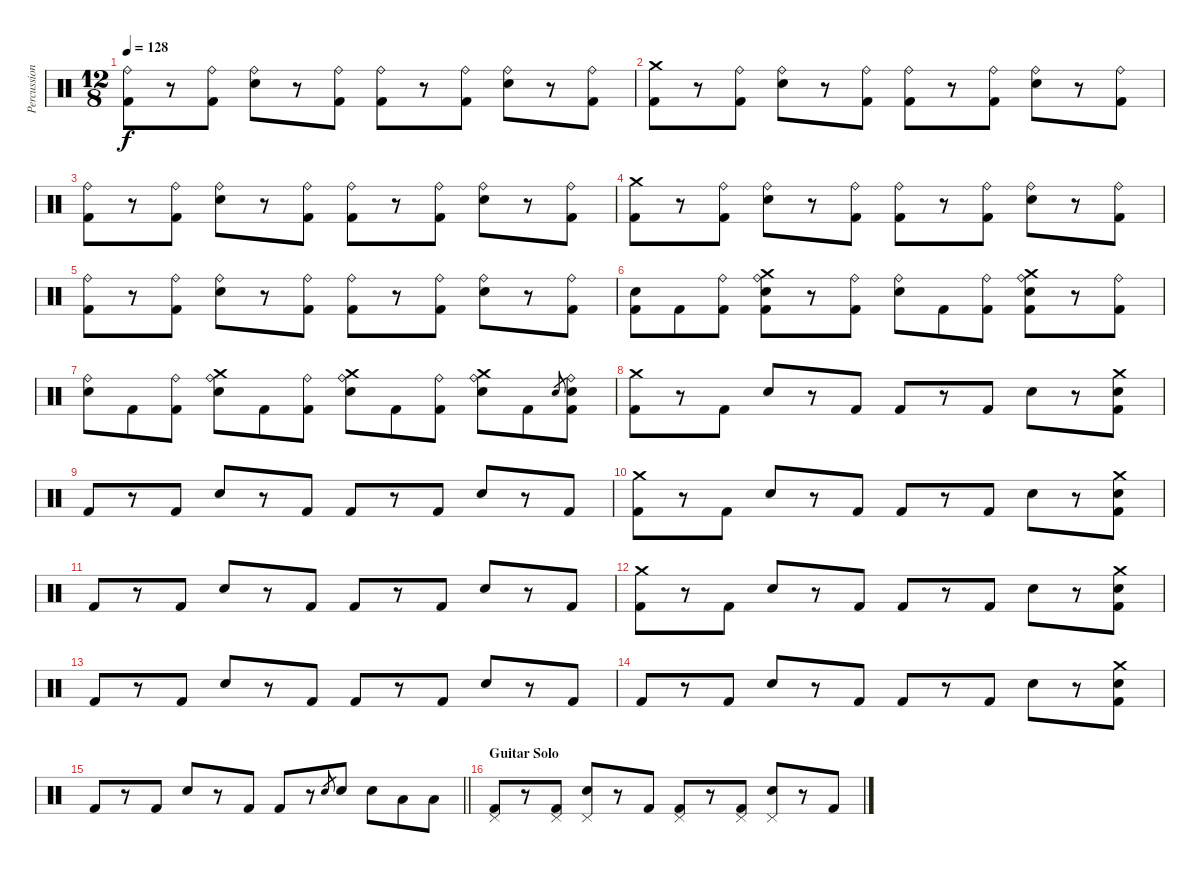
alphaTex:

\track ("Percussion" "Percussion") {instrument percussion}
\staff {score}
\articulation defaults
\ts (12 8)
\tempo 128
\clef neutral
\ks c
("Ride (bell)" "Kick (hit) 2").8{dy f} r.8 ("Ride (bell)" "Kick (hit) 2").8 ("Ride (bell)" "Snare (hit) 2").8 r.8 ("Ride (bell)" "Kick (hit) 2").8 ("Ride (bell)" "Kick (hit) 2").8 r.8 ("Ride (bell)" "Kick (hit) 2").8 ("Ride (bell)" "Snare (hit) 2").8 r.8 ("Ride (bell)" "Kick (hit) 2").8 |
("Crash medium (hit)" "Kick (hit) 2").8 r.8 ("Ride (bell)" "Kick (hit) 2").8 ("Ride (bell)" "Snare (hit) 2").8 r.8 ("Ride (bell)" "Kick (hit) 2").8 ("Ride (bell)" "Kick (hit) 2").8 r.8 ("Ride (bell)" "Kick (hit) 2").8 ("Ride (bell)" "Snare (hit) 2").8 r.8 ("Ride (bell)" "Kick (hit) 2").8 |
("Ride (bell)" "Kick (hit) 2").8 r.8 ("Ride (bell)" "Kick (hit) 2").8 ("Ride (bell)" "Snare (hit) 2").8 r.8 ("Ride (bell)" "Kick (hit) 2").8 ("Ride (bell)" "Kick (hit) 2").8 r.8 ("Ride (bell)" "Kick (hit) 2").8 ("Ride (bell)" "Snare (hit) 2").8 r.8 ("Ride (bell)" "Kick (hit) 2").8 |
("Crash medium (hit)" "Kick (hit) 2").8 r.8 ("Ride (bell)" "Kick (hit) 2").8 ("Ride (bell)" "Snare (hit) 2").8 r.8 ("Ride (bell)" "Kick (hit) 2").8 ("Ride (bell)" "Kick (hit) 2").8 r.8 ("Ride (bell)" "Kick (hit) 2").8 ("Ride (bell)" "Snare (hit) 2").8 r.8 ("Ride (bell)" "Kick (hit) 2").8 |
("Ride (bell)" "Kick (hit) 2").8 r.8 ("Ride (bell)" "Kick (hit) 2").8 ("Ride (bell)" "Snare (hit) 2").8 r.8 ("Ride (bell)" "Kick (hit) 2").8 ("Ride (bell)" "Kick (hit) 2").8 r.8 ("Ride (bell)" "Kick (hit) 2").8 ("Ride (bell)" "Snare (hit) 2").8 r.8 ("Ride (bell)" "Kick (hit) 2").8 |
("Snare (hit) 2" "Kick (hit) 2").8 "Kick (hit) 2".8 ("Ride (bell)" "Kick (hit) 2").8 ("Ride (bell)" "Crash medium (hit)" "Snare (hit) 2" "Kick (hit) 2").8 r.8 ("Ride (bell)" "Kick (hit) 2").8 ("Ride (bell)" "Snare (hit) 2").8 "Kick (hit) 2".8 ("Ride (bell)" "Kick (hit) 2").8 ("Ride (bell)" "Crash medium (hit)" "Snare (hit) 2" "Kick (hit) 2").8 r.8 ("Ride (bell)" "Kick (hit) 2").8 |
("Ride (bell)" "Snare (hit) 2").8 "Kick (hit) 2".8 ("Ride (bell)" "Kick (hit) 2").8 ("Ride (bell)" "Crash medium (hit)" "Snare (hit) 2").8 "Kick (hit) 2".8 ("Ride (bell)" "Kick (hit) 2").8 ("Ride (bell)" "Crash medium (hit)" "Snare (hit) 2").8 "Kick (hit) 2".8 ("Ride (bell)" "Kick (hit) 2").8 ("Ride (bell)" "Crash medium (hit)" "Snare (hit) 2").8 "Kick (hit) 2".8 "Snare (hit) 2".8{gr} ("Ride (bell)" "Snare (hit) 2" "Kick (hit) 2").8 |
("Crash medium (hit)" "Kick (hit) 2").8 r.8 "Kick (hit) 2".8 "Snare (hit) 2".8 r.8 "Kick (hit) 2".8 "Kick (hit) 2".8 r.8 "Kick (hit) 2".8 "Snare (hit) 2".8 r.8 ("Crash medium (hit)" "Snare (hit) 2" "Kick (hit) 2").8 |
"Kick (hit) 2".8 r.8 "Kick (hit) 2".8 "Snare (hit) 2".8 r.8 "Kick (hit) 2".8 "Kick (hit) 2".8 r.8 "Kick (hit) 2".8 "Snare (hit) 2".8 r.8 "Kick (hit) 2".8 |
("Crash medium (hit)" "Kick (hit) 2").8 r.8 "Kick (hit) 2".8 "Snare (hit) 2".8 r.8 "Kick (hit) 2".8 "Kick (hit) 2".8 r.8 "Kick (hit) 2".8 "Snare (hit) 2".8 r.8 ("Crash medium (hit)" "Snare (hit) 2" "Kick (hit) 2").8 |
"Kick (hit) 2".8 r.8 "Kick (hit) 2".8 "Snare (hit) 2".8 r.8 "Kick (hit) 2".8 "Kick (hit) 2".8 r.8 "Kick (hit) 2".8 "Snare (hit) 2".8 r.8 "Kick (hit) 2".8 |
("Crash medium (hit)" "Kick (hit) 2").8 r.8 "Kick (hit) 2".8 "Snare (hit) 2".8 r.8 "Kick (hit) 2".8 "Kick (hit) 2".8 r.8 "Kick (hit) 2".8 "Snare (hit) 2".8 r.8 ("Crash medium (hit)" "Snare (hit) 2" "Kick (hit) 2").8 |
"Kick (hit) 2".8 r.8 "Kick (hit) 2".8 "Snare (hit) 2".8 r.8 "Kick (hit) 2".8 "Kick (hit) 2".8 r.8 "Kick (hit) 2".8 "Snare (hit) 2".8 r.8 "Kick (hit) 2".8 |
"Kick (hit) 2".8 r.8 "Kick (hit) 2".8 "Snare (hit) 2".8 r.8 "Kick (hit) 2".8 "Kick (hit) 2".8 r.8 "Kick (hit) 2".8 "Snare (hit) 2".8 r.8 ("Crash medium (hit)" "Snare (hit) 2" "Kick (hit) 2").8 |
\barLineRight lightlight "Kick (hit) 2".8
r.8 "Kick (hit) 2".8 "Snare (hit) 2".8 r.8 "Kick (hit) 2".8 "Kick (hit) 2".8 r.8 "Snare (hit) 2".8{gr} "Snare (hit) 2".8 "Snare (hit) 2".8 "Low Tom (hit)".8 "Low Floor Tom (hit)".8 |
\section ("" "Guitar Solo")
("Pedal Hi-Hat (hit)" "Kick (hit) 2").8 r.8 ("Pedal Hi-Hat (hit)" "Kick (hit) 2").8 ("Pedal Hi-Hat (hit)" "Snare (hit) 2").8 r.8 "Kick (hit) 2".8 ("Pedal Hi-Hat (hit)" "Kick (hit) 2").8 r.8 ("Pedal Hi-Hat (hit)" "Kick (hit) 2").8 ("Pedal Hi-Hat (hit)" "Snare (hit) 2").8 r.8 "Kick (hit) 2".8
